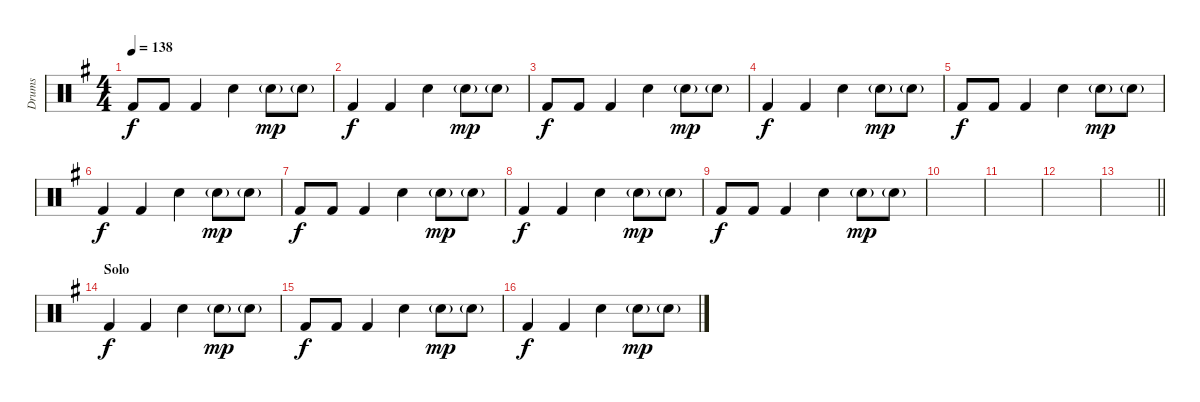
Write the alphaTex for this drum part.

\track ("Drums" "Drums") {instrument percussion}
\staff {score}
\articulation defaults
\ts (4 4)
\tempo 138
\clef neutral
\ks g "Kick (hit) 2".8{dy f} "Kick (hit) 2".8 "Kick (hit) 2".4 "Snare (hit) 2".4 "Snare (hit) 2"{g}.8{dy mp} "Snare (hit) 2"{g}.8
|
"Kick (hit) 2".4{dy f} "Kick (hit) 2".4 "Snare (hit) 2".4 "Snare (hit) 2"{g}.8{dy mp} "Snare (hit) 2"{g}.8 |
"Kick (hit) 2".8{dy f} "Kick (hit) 2".8 "Kick (hit) 2".4 "Snare (hit) 2".4 "Snare (hit) 2"{g}.8{dy mp} "Snare (hit) 2"{g}.8 |
"Kick (hit) 2".4{dy f} "Kick (hit) 2".4 "Snare (hit) 2".4 "Snare (hit) 2"{g}.8{dy mp} "Snare (hit) 2"{g}.8 |
"Kick (hit) 2".8{dy f} "Kick (hit) 2".8 "Kick (hit) 2".4 "Snare (hit) 2".4 "Snare (hit) 2"{g}.8{dy mp} "Snare (hit) 2"{g}.8 |
"Kick (hit) 2".4{dy f} "Kick (hit) 2".4 "Snare (hit) 2".4 "Snare (hit) 2"{g}.8{dy mp} "Snare (hit) 2"{g}.8 |
"Kick (hit) 2".8{dy f} "Kick (hit) 2".8 "Kick (hit) 2".4 "Snare (hit) 2".4 "Snare (hit) 2"{g}.8{dy mp} "Snare (hit) 2"{g}.8 |
"Kick (hit) 2".4{dy f} "Kick (hit) 2".4 "Snare (hit) 2".4 "Snare (hit) 2"{g}.8{dy mp} "Snare (hit) 2"{g}.8 |
"Kick (hit) 2".8{dy f} "Kick (hit) 2".8 "Kick (hit) 2".4 "Snare (hit) 2".4 "Snare (hit) 2"{g}.8{dy mp} "Snare (hit) 2"{g}.8 |
|
|
|
\barLineRight lightlight
|
\section ("" "Solo")
"Kick (hit) 2".4{dy f} "Kick (hit) 2".4 "Snare (hit) 2".4 "Snare (hit) 2"{g}.8{dy mp} "Snare (hit) 2"{g}.8 |
"Kick (hit) 2".8{dy f} "Kick (hit) 2".8 "Kick (hit) 2".4 "Snare (hit) 2".4 "Snare (hit) 2"{g}.8{dy mp} "Snare (hit) 2"{g}.8 |
"Kick (hit) 2".4{dy f} "Kick (hit) 2".4 "Snare (hit) 2".4 "Snare (hit) 2"{g}.8{dy mp} "Snare (hit) 2"{g}.8
